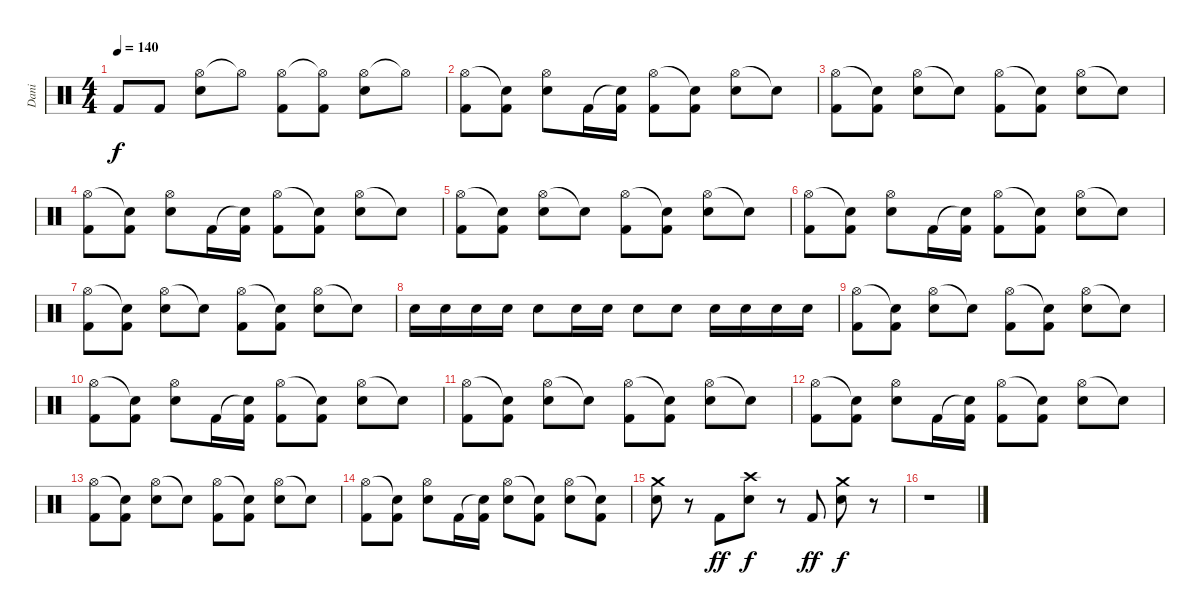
\track ("Dani" "Dani") {instrument percussion}
\staff {score}
\articulation defaults
\ts (4 4)
\tempo 140
\clef neutral
\ks c "Kick (hit) 2".8{dy f} "Kick (hit) 2".8
("Hi-Hat (open)" "Snare (hit) 2").8 "Hi-Hat (open)"{t}.8 ("Hi-Hat (open)" "Kick (hit) 2").8 ("Hi-Hat (open)"{t} "Kick (hit) 2").8 ("Hi-Hat (open)" "Snare (hit) 2").8 "Hi-Hat (open)"{t}.8 |
("Hi-Hat (open)" "Kick (hit) 2").8 ("Snare (hit)"{t} "Kick (hit) 2").8 ("Hi-Hat (open)" "Snare (hit) 2").8 "Kick (hit) 2".16 ("Snare (hit)"{t} "Kick (hit) 2").16 ("Hi-Hat (open)" "Kick (hit) 2").8 ("Snare (hit)"{t} "Kick (hit) 2").8 ("Hi-Hat (open)" "Snare (hit) 2").8 "Snare (hit)"{t}.8 |
("Hi-Hat (open)" "Kick (hit) 2").8 ("Snare (hit)"{t} "Kick (hit) 2").8 ("Hi-Hat (open)" "Snare (hit) 2").8 "Snare (hit)"{t}.8 ("Hi-Hat (open)" "Kick (hit) 2").8 ("Snare (hit)"{t} "Kick (hit) 2").8 ("Hi-Hat (open)" "Snare (hit) 2").8 "Snare (hit)"{t}.8 |
("Hi-Hat (open)" "Kick (hit) 2").8 ("Snare (hit)"{t} "Kick (hit) 2").8 ("Hi-Hat (open)" "Snare (hit) 2").8 "Kick (hit) 2".16 ("Snare (hit)"{t} "Kick (hit) 2").16 ("Hi-Hat (open)" "Kick (hit) 2").8 ("Snare (hit)"{t} "Kick (hit) 2").8 ("Hi-Hat (open)" "Snare (hit) 2").8 "Snare (hit)"{t}.8 |
("Hi-Hat (open)" "Kick (hit) 2").8 ("Snare (hit)"{t} "Kick (hit) 2").8 ("Hi-Hat (open)" "Snare (hit) 2").8 "Snare (hit)"{t}.8 ("Hi-Hat (open)" "Kick (hit) 2").8 ("Snare (hit)"{t} "Kick (hit) 2").8 ("Hi-Hat (open)" "Snare (hit) 2").8 "Snare (hit)"{t}.8 |
("Hi-Hat (open)" "Kick (hit) 2").8 ("Snare (hit)"{t} "Kick (hit) 2").8 ("Hi-Hat (open)" "Snare (hit) 2").8 "Kick (hit) 2".16 ("Snare (hit)"{t} "Kick (hit) 2").16 ("Hi-Hat (open)" "Kick (hit) 2").8 ("Snare (hit)"{t} "Kick (hit) 2").8 ("Hi-Hat (open)" "Snare (hit) 2").8 "Snare (hit)"{t}.8 |
("Hi-Hat (open)" "Kick (hit) 2").8 ("Snare (hit)"{t} "Kick (hit) 2").8 ("Hi-Hat (open)" "Snare (hit) 2").8 "Snare (hit)"{t}.8 ("Hi-Hat (open)" "Kick (hit) 2").8 ("Snare (hit)"{t} "Kick (hit) 2").8 ("Hi-Hat (open)" "Snare (hit) 2").8 "Snare (hit)"{t}.8 |
"Snare (hit) 2".16 "Snare (hit) 2".16 "Snare (hit) 2".16 "Snare (hit) 2".16 "Snare (hit) 2".8 "Snare (hit) 2".16 "Snare (hit) 2".16 "Snare (hit) 2".8 "Snare (hit) 2".8 "Snare (hit) 2".16 "Snare (hit) 2".16 "Snare (hit) 2".16 "Snare (hit) 2".16 |
("Hi-Hat (open)" "Kick (hit) 2").8 ("Snare (hit)"{t} "Kick (hit) 2").8 ("Hi-Hat (open)" "Snare (hit) 2").8 "Snare (hit)"{t}.8 ("Hi-Hat (open)" "Kick (hit) 2").8 ("Snare (hit)"{t} "Kick (hit) 2").8 ("Hi-Hat (open)" "Snare (hit) 2").8 "Snare (hit)"{t}.8 |
("Hi-Hat (open)" "Kick (hit) 2").8 ("Snare (hit)"{t} "Kick (hit) 2").8 ("Hi-Hat (open)" "Snare (hit) 2").8 "Kick (hit) 2".16 ("Snare (hit)"{t} "Kick (hit) 2").16 ("Hi-Hat (open)" "Kick (hit) 2").8 ("Snare (hit)"{t} "Kick (hit) 2").8 ("Hi-Hat (open)" "Snare (hit) 2").8 "Snare (hit)"{t}.8 |
("Hi-Hat (open)" "Kick (hit) 2").8 ("Snare (hit)"{t} "Kick (hit) 2").8 ("Hi-Hat (open)" "Snare (hit) 2").8 "Snare (hit)"{t}.8 ("Hi-Hat (open)" "Kick (hit) 2").8 ("Snare (hit)"{t} "Kick (hit) 2").8 ("Hi-Hat (open)" "Snare (hit) 2").8 "Snare (hit)"{t}.8 |
("Hi-Hat (open)" "Kick (hit) 2").8 ("Snare (hit)"{t} "Kick (hit) 2").8 ("Hi-Hat (open)" "Snare (hit) 2").8 "Kick (hit) 2".16 ("Snare (hit)"{t} "Kick (hit) 2").16 ("Hi-Hat (open)" "Kick (hit) 2").8 ("Snare (hit)"{t} "Kick (hit) 2").8 ("Hi-Hat (open)" "Snare (hit) 2").8 "Snare (hit)"{t}.8 |
("Hi-Hat (open)" "Kick (hit) 2").8 ("Snare (hit)"{t} "Kick (hit) 2").8 ("Hi-Hat (open)" "Snare (hit) 2").8 "Snare (hit)"{t}.8 ("Hi-Hat (open)" "Kick (hit) 2").8 ("Snare (hit)"{t} "Kick (hit) 2").8 ("Hi-Hat (open)" "Snare (hit) 2").8 "Snare (hit)"{t}.8 |
("Hi-Hat (open)" "Kick (hit) 2").8 ("Snare (hit)"{t} "Kick (hit) 2").8 ("Hi-Hat (open)" "Snare (hit) 2").8 "Kick (hit) 2".16 ("Snare (hit)"{t} "Kick (hit) 2").16 ("Hi-Hat (open)" "Snare (hit) 2").8 ("Snare (hit)"{t} "Kick (hit) 2").8 ("Hi-Hat (open)" "Snare (hit) 2").8 ("Snare (hit)"{t} "Kick (hit) 2").8 |
("Crash medium (hit)" "Snare (hit) 2").8 r.8 "Kick (hit) 2".8{dy ff} ("Crash high (hit)" "Snare (hit) 2").8{dy f} r.8 "Kick (hit) 2".8{dy ff} ("Crash medium (hit)" "Snare (hit) 2").8{dy f} r.8 |
r.1
